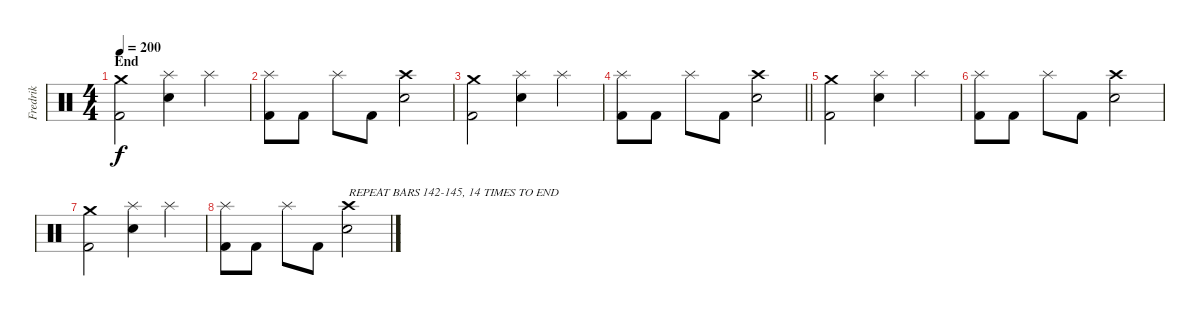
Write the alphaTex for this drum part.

\track ("Fredrik" "Fredrik") {instrument percussion}
\staff {score}
\articulation defaults
\ts (4 4)
\section ("" "End")
\tempo 200
\clef neutral
\ks c
("Kick (hit) 2" "Crash medium (hit)").2{dy f} ("Snare (hit) 2" "Splash (hit)").4 "Splash (hit)".4 |
("Kick (hit) 2" "Splash (hit)").8 "Kick (hit) 2".8 "Splash (hit)".8 "Kick (hit) 2".8 ("Snare (hit) 2" "Crash high (hit)").2 |
("Kick (hit) 2" "Crash medium (hit)").2 ("Snare (hit) 2" "Splash (hit)").4 "Splash (hit)".4 |
\barLineRight lightlight
("Kick (hit) 2" "Splash (hit)").8 "Kick (hit) 2".8 "Splash (hit)".8 "Kick (hit) 2".8 ("Snare (hit) 2" "Crash high (hit)").2 |
\section ("" "")
("Kick (hit) 2" "Crash medium (hit)").2 ("Snare (hit) 2" "Splash (hit)").4 "Splash (hit)".4 |
("Kick (hit) 2" "Splash (hit)").8 "Kick (hit) 2".8 "Splash (hit)".8 "Kick (hit) 2".8 ("Snare (hit) 2" "Crash high (hit)").2 |
("Kick (hit) 2" "Crash medium (hit)").2 ("Snare (hit) 2" "Splash (hit)").4 "Splash (hit)".4 |
("Kick (hit) 2" "Splash (hit)").8 "Kick (hit) 2".8 "Splash (hit)".8 "Kick (hit) 2".8 ("Snare (hit) 2" "Crash high (hit)").2{txt "REPEAT BARS 142-145, 14 TIMES TO END"}
